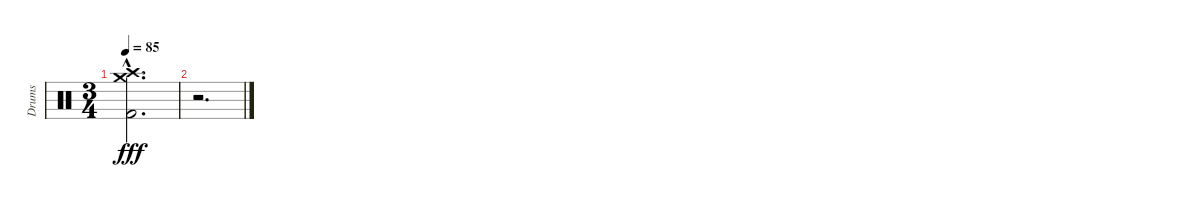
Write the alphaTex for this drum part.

\track ("Drums" "Drums") {instrument percussion}
\staff {score}
\articulation defaults
\ts (3 4)
\tempo 85
\clef neutral
\ks c
("Crash high (hit)" "Crash medium (hit)" "Kick (hit) 2"{hac}).2{d dy fff} |
r.2{d}
